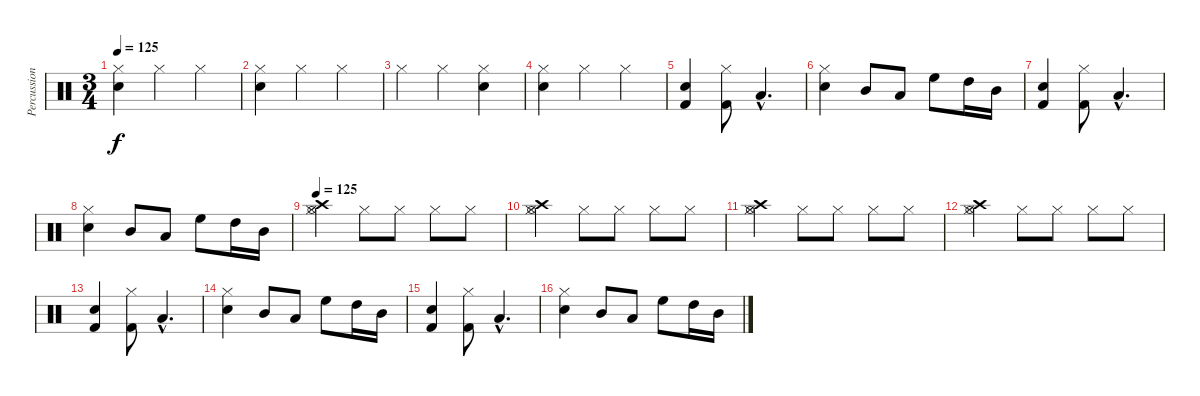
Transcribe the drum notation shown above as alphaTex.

\track ("Percussion" "Percussion") {instrument percussion}
\staff {score}
\articulation defaults
\ts (3 4)
\tempo 125
\clef neutral
\ks c
("Snare (hit) 2" "Hi-Hat (closed)").4{dy f} "Hi-Hat (closed)".4 "Hi-Hat (closed)".4 |
("Snare (hit) 2" "Hi-Hat (closed)").4 "Hi-Hat (closed)".4 "Hi-Hat (closed)".4 |
"Hi-Hat (closed)".4 "Hi-Hat (closed)".4 ("Snare (hit) 2" "Hi-Hat (closed)").4 |
("Snare (hit) 2" "Hi-Hat (closed)").4 "Hi-Hat (closed)".4 "Hi-Hat (closed)".4 |
("Kick (hit) 2" "Snare (hit) 2").4 ("Kick (hit) 2" "Hi-Hat (closed)").8 "Low Tom (hit)"{hac}.4{d} |
("Snare (hit) 2" "Hi-Hat (closed)").4 "Mid Tom (hit)".8 "Low Tom (hit)".8 "High Floor Tom (hit)".8 "High Tom (hit)".16 "Mid Tom (hit)".16 |
("Kick (hit) 2" "Snare (hit) 2").4 ("Kick (hit) 2" "Hi-Hat (closed)").8 "Low Tom (hit)"{hac}.4{d} |
("Snare (hit) 2" "Hi-Hat (closed)").4 "Mid Tom (hit)".8 "Low Tom (hit)".8 "High Floor Tom (hit)".8 "High Tom (hit)".16 "Mid Tom (hit)".16 |
\tempo 125
("Hi-Hat (open)" "Crash high (hit)" "Hi-Hat (closed)").4 "Hi-Hat (closed)".8 "Hi-Hat (closed)".8 "Hi-Hat (closed)".8 "Hi-Hat (closed)".8 |
("Hi-Hat (open)" "Crash high (hit)" "Hi-Hat (closed)").4 "Hi-Hat (closed)".8 "Hi-Hat (closed)".8 "Hi-Hat (closed)".8 "Hi-Hat (closed)".8 |
("Hi-Hat (open)" "Crash high (hit)" "Hi-Hat (closed)").4 "Hi-Hat (closed)".8 "Hi-Hat (closed)".8 "Hi-Hat (closed)".8 "Hi-Hat (closed)".8 |
("Hi-Hat (open)" "Crash high (hit)" "Hi-Hat (closed)").4 "Hi-Hat (closed)".8 "Hi-Hat (closed)".8 "Hi-Hat (closed)".8 "Hi-Hat (closed)".8 |
("Kick (hit) 2" "Snare (hit) 2").4 ("Kick (hit) 2" "Hi-Hat (closed)").8 "Low Tom (hit)"{hac}.4{d} |
("Snare (hit) 2" "Hi-Hat (closed)").4 "Mid Tom (hit)".8 "Low Tom (hit)".8 "High Floor Tom (hit)".8 "High Tom (hit)".16 "Mid Tom (hit)".16 |
("Kick (hit) 2" "Snare (hit) 2").4 ("Kick (hit) 2" "Hi-Hat (closed)").8 "Low Tom (hit)"{hac}.4{d} |
("Snare (hit) 2" "Hi-Hat (closed)").4 "Mid Tom (hit)".8 "Low Tom (hit)".8 "High Floor Tom (hit)".8 "High Tom (hit)".16 "Mid Tom (hit)".16
